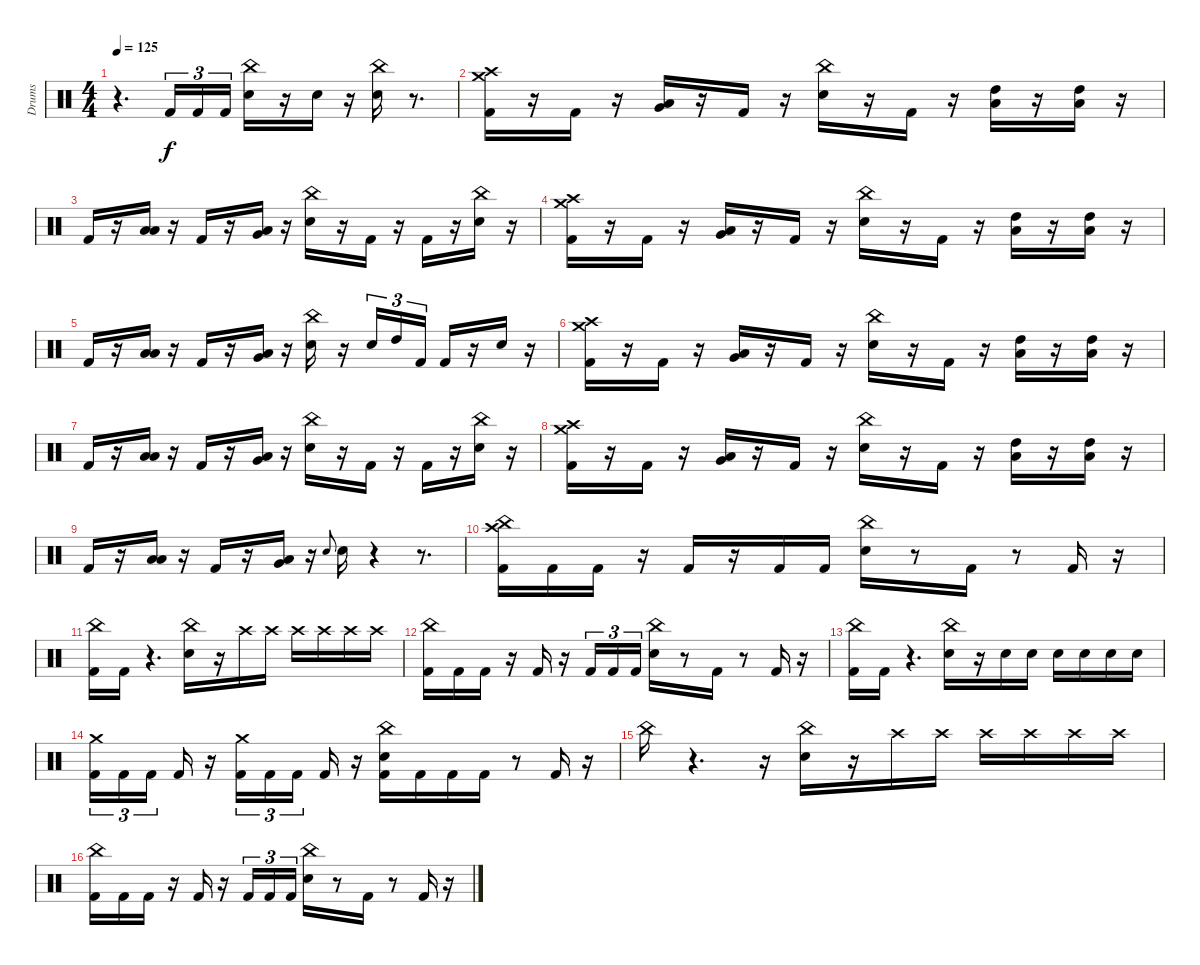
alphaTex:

\track ("Drums" "Drums") {instrument percussion}
\staff {score}
\articulation defaults
\ts (4 4)
\tempo 125
\clef neutral
\ks c
r.4{d dy f} "Kick (hit) 2".16{tu (3 2)} "Kick (hit) 2".16{tu (3 2)} "Kick (hit) 2".16{tu (3 2)} ("Snare (hit) 2" "China (hit)").16 r.16 "Snare (hit) 2".16 r.16 ("Snare (hit) 2" "China (hit)").16 r.8{d} |
("Kick (hit) 2" "Crash high (hit)" "Crash medium (hit)").16 r.16 "Kick (hit) 2".16 r.16 ("Low Tom (hit)" "Very Low Tom (hit)").16 r.16 "Kick (hit) 2".16 r.16 ("Snare (hit) 2" "China (hit)").16 r.16 "Kick (hit) 2".16 r.16 ("Low Tom (hit)" "High Tom (hit)").16 r.16 ("Low Tom (hit)" "High Tom (hit)").16 r.16 |
"Kick (hit) 2".16 r.16 ("Low Floor Tom (hit)" "Low Tom (hit)").16 r.16 "Kick (hit) 2".16 r.16 ("Low Floor Tom (hit)" "Very Low Tom (hit)").16 r.16 ("Snare (hit) 2" "China (hit)").16 r.16 "Kick (hit) 2".16 r.16 "Kick (hit) 2".16 r.16 ("Snare (hit) 2" "China (hit)").16 r.16 |
("Kick (hit) 2" "Crash high (hit)" "Crash medium (hit)").16 r.16 "Kick (hit) 2".16 r.16 ("Low Tom (hit)" "Very Low Tom (hit)").16 r.16 "Kick (hit) 2".16 r.16 ("Snare (hit) 2" "China (hit)").16 r.16 "Kick (hit) 2".16 r.16 ("Low Tom (hit)" "High Tom (hit)").16 r.16 ("Low Tom (hit)" "High Tom (hit)").16 r.16 |
"Kick (hit) 2".16 r.16 ("Low Floor Tom (hit)" "Low Tom (hit)").16 r.16 "Kick (hit) 2".16 r.16 ("Low Floor Tom (hit)" "Very Low Tom (hit)").16 r.16 ("Snare (hit) 2" "China (hit)").16 r.16 "Snare (hit) 2".16{tu (3 2)} "High Tom (hit)".16{tu (3 2)} "Kick (hit) 2".16{tu (3 2)} "Kick (hit) 2".16 r.16 "Snare (hit) 2".16 r.16 |
("Kick (hit) 2" "Crash high (hit)" "Crash medium (hit)").16 r.16 "Kick (hit) 2".16 r.16 ("Low Tom (hit)" "Very Low Tom (hit)").16 r.16 "Kick (hit) 2".16 r.16 ("Snare (hit) 2" "China (hit)").16 r.16 "Kick (hit) 2".16 r.16 ("Low Tom (hit)" "High Tom (hit)").16 r.16 ("Low Tom (hit)" "High Tom (hit)").16 r.16 |
"Kick (hit) 2".16 r.16 ("Low Floor Tom (hit)" "Low Tom (hit)").16 r.16 "Kick (hit) 2".16 r.16 ("Low Floor Tom (hit)" "Very Low Tom (hit)").16 r.16 ("Snare (hit) 2" "China (hit)").16 r.16 "Kick (hit) 2".16 r.16 "Kick (hit) 2".16 r.16 ("Snare (hit) 2" "China (hit)").16 r.16 |
("Kick (hit) 2" "Crash high (hit)" "Crash medium (hit)").16 r.16 "Kick (hit) 2".16 r.16 ("Low Tom (hit)" "Very Low Tom (hit)").16 r.16 "Kick (hit) 2".16 r.16 ("Snare (hit) 2" "China (hit)").16 r.16 "Kick (hit) 2".16 r.16 ("Low Tom (hit)" "High Tom (hit)").16 r.16 ("Low Tom (hit)" "High Tom (hit)").16 r.16 |
"Kick (hit) 2".16 r.16 ("Low Floor Tom (hit)" "Low Tom (hit)").16 r.16 "Kick (hit) 2".16 r.16 ("Low Floor Tom (hit)" "Very Low Tom (hit)").16 r.16 "Snare (hit) 2".8{gr onbeat} "Snare (hit) 2".16 r.4 r.8{d} |
("Kick (hit) 2" "Crash high (hit)" "China (hit)").16 "Kick (hit) 2".16 "Kick (hit) 2".16 r.16 "Kick (hit) 2".16 r.16 "Kick (hit) 2".16 "Kick (hit) 2".16 ("Snare (hit) 2" "China (hit)").16 r.8 "Kick (hit) 2".16 r.8 "Kick (hit) 2".16 r.16 |
("Kick (hit) 2" "China (hit)").16 "Kick (hit) 2".16 r.4{d} ("Snare (hit) 2" "China (hit)").16 r.16 "Crash high (hit)".16 "Crash high (hit)".16 "Crash high (hit)".16 "Crash high (hit)".16 "Crash high (hit)".16 "Crash high (hit)".16 |
("Kick (hit) 2" "China (hit)").16 "Kick (hit) 2".16 "Kick (hit) 2".16 r.16 "Kick (hit) 2".16 r.16 "Kick (hit) 2".16{tu (3 2)} "Kick (hit) 2".16{tu (3 2)} "Kick (hit) 2".16{tu (3 2)} ("Snare (hit) 2" "China (hit)").16 r.8 "Kick (hit) 2".16 r.8 "Kick (hit) 2".16 r.16 |
("Kick (hit) 2" "China (hit)").16 "Kick (hit) 2".16 r.4{d} ("Snare (hit) 2" "China (hit)").16 r.16 "Snare (hit) 2".16 "Snare (hit) 2".16 "Snare (hit) 2".16 "Snare (hit) 2".16 "Snare (hit) 2".16 "Snare (hit) 2".16 |
("Kick (hit) 2" "Crash medium (hit)").16{tu (3 2)} "Kick (hit) 2".16{tu (3 2)} "Kick (hit) 2".16{tu (3 2) beam splitsecondary} "Kick (hit) 2".16 r.16 ("Kick (hit) 2" "Crash medium (hit)").16{tu (3 2)} "Kick (hit) 2".16{tu (3 2)} "Kick (hit) 2".16{tu (3 2) beam splitsecondary} "Kick (hit) 2".16 r.16 ("Kick (hit) 2" "Snare (hit) 2" "China (hit)").16 "Kick (hit) 2".16 "Kick (hit) 2".16 "Kick (hit) 2".16 r.8 "Kick (hit) 2".16 r.16 |
"China (hit)".16 r.4{d} r.16 ("Snare (hit) 2" "China (hit)").16 r.16 "Crash high (hit)".16 "Crash high (hit)".16 "Crash high (hit)".16 "Crash high (hit)".16 "Crash high (hit)".16 "Crash high (hit)".16 |
("Kick (hit) 2" "China (hit)").16 "Kick (hit) 2".16 "Kick (hit) 2".16 r.16 "Kick (hit) 2".16 r.16 "Kick (hit) 2".16{tu (3 2)} "Kick (hit) 2".16{tu (3 2)} "Kick (hit) 2".16{tu (3 2)} ("Snare (hit) 2" "China (hit)").16 r.8 "Kick (hit) 2".16 r.8 "Kick (hit) 2".16 r.16
